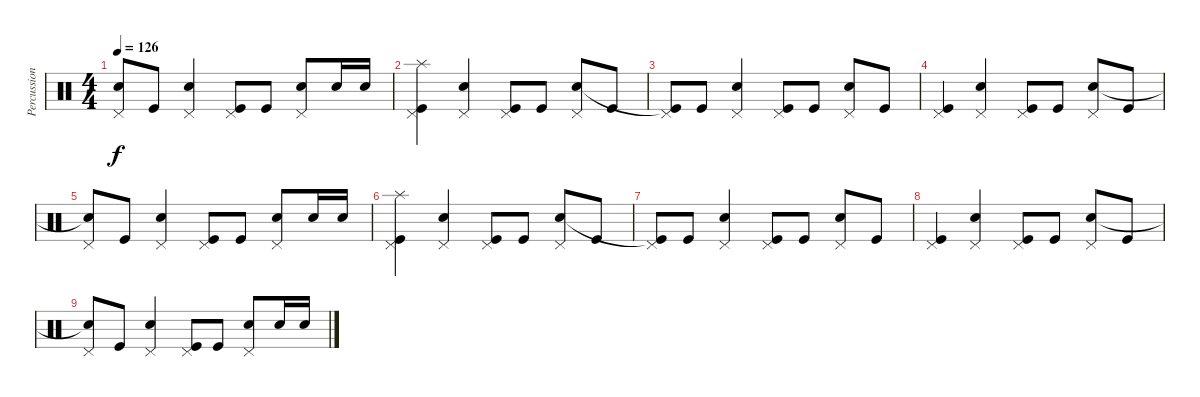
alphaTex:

\track ("Percussion" "Percussion") {instrument percussion}
\staff {score}
\articulation defaults
\ts (4 4)
\tempo 126
\clef neutral
\ks c
("Pedal Hi-Hat (hit)" "Snare (hit)"{t}).8{dy f} "Kick (hit)".8 ("Pedal Hi-Hat (hit)" "Snare (hit) 2").4 ("Pedal Hi-Hat (hit)" "Kick (hit)").8 "Kick (hit)".8 ("Pedal Hi-Hat (hit)" "Snare (hit) 2").8 "Snare (hit) 2".16 "Snare (hit) 2".16 |
("Splash (hit)" "Pedal Hi-Hat (hit)" "Kick (hit)").4 ("Pedal Hi-Hat (hit)" "Snare (hit) 2").4 ("Pedal Hi-Hat (hit)" "Kick (hit)").8 "Kick (hit)".8 ("Pedal Hi-Hat (hit)" "Snare (hit) 2").8 "Kick (hit)".8 |
("Pedal Hi-Hat (hit)" "Kick (hit)"{t}).8 "Kick (hit)".8 ("Pedal Hi-Hat (hit)" "Snare (hit) 2").4 ("Pedal Hi-Hat (hit)" "Kick (hit)").8 "Kick (hit)".8 ("Pedal Hi-Hat (hit)" "Snare (hit) 2").8 "Kick (hit)".8 |
("Pedal Hi-Hat (hit)" "Kick (hit)").4 ("Pedal Hi-Hat (hit)" "Snare (hit) 2").4 ("Pedal Hi-Hat (hit)" "Kick (hit)").8 "Kick (hit)".8 ("Pedal Hi-Hat (hit)" "Snare (hit) 2").8 "Kick (hit)".8 |
("Pedal Hi-Hat (hit)" "Snare (hit)"{t}).8 "Kick (hit)".8 ("Pedal Hi-Hat (hit)" "Snare (hit) 2").4 ("Pedal Hi-Hat (hit)" "Kick (hit)").8 "Kick (hit)".8 ("Pedal Hi-Hat (hit)" "Snare (hit) 2").8 "Snare (hit) 2".16 "Snare (hit) 2".16 |
("Splash (hit)" "Pedal Hi-Hat (hit)" "Kick (hit)").4 ("Pedal Hi-Hat (hit)" "Snare (hit) 2").4 ("Pedal Hi-Hat (hit)" "Kick (hit)").8 "Kick (hit)".8 ("Pedal Hi-Hat (hit)" "Snare (hit) 2").8 "Kick (hit)".8 |
("Pedal Hi-Hat (hit)" "Kick (hit)"{t}).8 "Kick (hit)".8 ("Pedal Hi-Hat (hit)" "Snare (hit) 2").4 ("Pedal Hi-Hat (hit)" "Kick (hit)").8 "Kick (hit)".8 ("Pedal Hi-Hat (hit)" "Snare (hit) 2").8 "Kick (hit)".8 |
("Pedal Hi-Hat (hit)" "Kick (hit)").4 ("Pedal Hi-Hat (hit)" "Snare (hit) 2").4 ("Pedal Hi-Hat (hit)" "Kick (hit)").8 "Kick (hit)".8 ("Pedal Hi-Hat (hit)" "Snare (hit) 2").8 "Kick (hit)".8 |
("Pedal Hi-Hat (hit)" "Snare (hit)"{t}).8 "Kick (hit)".8 ("Pedal Hi-Hat (hit)" "Snare (hit) 2").4 ("Pedal Hi-Hat (hit)" "Kick (hit)").8 "Kick (hit)".8 ("Pedal Hi-Hat (hit)" "Snare (hit) 2").8 "Snare (hit) 2".16 "Snare (hit) 2".16
